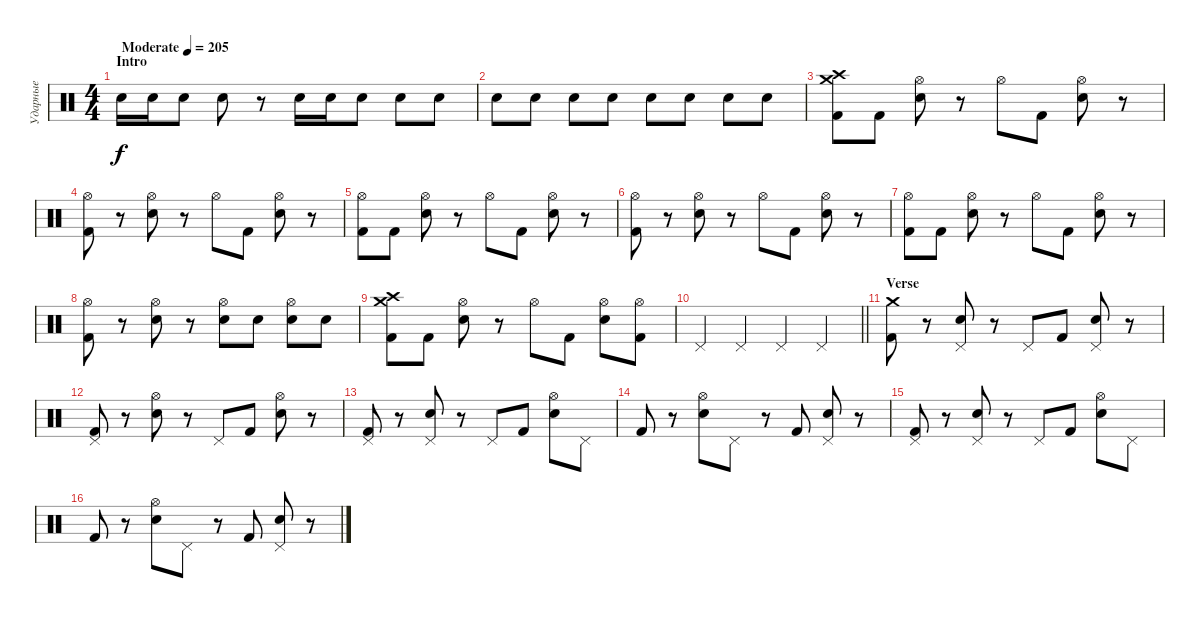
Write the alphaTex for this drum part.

\track ("Ударные" "Ударные") {instrument percussion}
\staff {score}
\articulation defaults
\ts (4 4)
\section ("" "Intro")
\tempo (205 "Moderate")
\clef neutral
\ks c "Electric Snare (hit)".16{dy f} "Electric Snare (hit)".16 "Electric Snare (hit)".8 "Electric Snare (hit)".8
r.8 "Electric Snare (hit)".16 "Electric Snare (hit)".16 "Electric Snare (hit)".8 "Electric Snare (hit)".8 "Electric Snare (hit)".8 |
"Electric Snare (hit)".8 "Electric Snare (hit)".8 "Electric Snare (hit)".8 "Electric Snare (hit)".8 "Electric Snare (hit)".8 "Electric Snare (hit)".8 "Electric Snare (hit)".8 "Electric Snare (hit)".8 |
("Crash medium (hit)" "Crash high (hit)" "Kick (hit) 2").8 "Kick (hit) 2".8 ("Hi-Hat (open)" "Electric Snare (hit)").8 r.8 "Hi-Hat (open)".8 "Kick (hit) 2".8 ("Hi-Hat (open)" "Electric Snare (hit)").8 r.8 |
("Hi-Hat (open)" "Kick (hit) 2").8 r.8 ("Hi-Hat (open)" "Electric Snare (hit)").8 r.8 "Hi-Hat (open)".8 "Kick (hit) 2".8 ("Hi-Hat (open)" "Electric Snare (hit)").8 r.8 |
("Hi-Hat (open)" "Kick (hit) 2").8 "Kick (hit) 2".8 ("Hi-Hat (open)" "Electric Snare (hit)").8 r.8 "Hi-Hat (open)".8 "Kick (hit) 2".8 ("Hi-Hat (open)" "Electric Snare (hit)").8 r.8 |
("Hi-Hat (open)" "Kick (hit) 2").8 r.8 ("Hi-Hat (open)" "Electric Snare (hit)").8 r.8 "Hi-Hat (open)".8 "Kick (hit) 2".8 ("Hi-Hat (open)" "Electric Snare (hit)").8 r.8 |
("Hi-Hat (open)" "Kick (hit) 2").8 "Kick (hit) 2".8 ("Hi-Hat (open)" "Electric Snare (hit)").8 r.8 "Hi-Hat (open)".8 "Kick (hit) 2".8 ("Hi-Hat (open)" "Electric Snare (hit)").8 r.8 |
("Hi-Hat (open)" "Kick (hit) 2").8 r.8 ("Hi-Hat (open)" "Electric Snare (hit)").8 r.8 ("Hi-Hat (open)" "Electric Snare (hit)").8 "Electric Snare (hit)".8 ("Hi-Hat (open)" "Electric Snare (hit)").8 "Electric Snare (hit)".8 |
("Crash medium (hit)" "Crash high (hit)" "Kick (hit) 2").8 "Kick (hit) 2".8 ("Hi-Hat (open)" "Electric Snare (hit)").8 r.8 "Hi-Hat (open)".8 "Kick (hit) 2".8 ("Hi-Hat (open)" "Electric Snare (hit)").8 ("Hi-Hat (open)" "Kick (hit) 2").8 |
\barLineRight lightlight "Pedal Hi-Hat (hit)".4 "Pedal Hi-Hat (hit)".4 "Pedal Hi-Hat (hit)".4 "Pedal Hi-Hat (hit)".4
|
\section ("" "Verse")
("Crash medium (hit)" "Kick (hit) 2").8 r.8 ("Pedal Hi-Hat (hit)" "Electric Snare (hit)").8 r.8 "Pedal Hi-Hat (hit)".8 "Kick (hit) 2".8 ("Pedal Hi-Hat (hit)" "Electric Snare (hit)").8 r.8 |
("Pedal Hi-Hat (hit)" "Kick (hit) 2").8 r.8 ("Hi-Hat (open)" "Electric Snare (hit)").8 r.8 "Pedal Hi-Hat (hit)".8 "Kick (hit) 2".8 ("Hi-Hat (open)" "Electric Snare (hit)").8 r.8 |
("Pedal Hi-Hat (hit)" "Kick (hit) 2").8 r.8 ("Pedal Hi-Hat (hit)" "Electric Snare (hit)").8 r.8 "Pedal Hi-Hat (hit)".8 "Kick (hit) 2".8 ("Hi-Hat (open)" "Electric Snare (hit)").8 "Pedal Hi-Hat (hit)".8 |
"Kick (hit) 2".8 r.8 ("Hi-Hat (open)" "Electric Snare (hit)").8 "Pedal Hi-Hat (hit)".8 r.8 "Kick (hit) 2".8 ("Pedal Hi-Hat (hit)" "Electric Snare (hit)").8 r.8 |
("Pedal Hi-Hat (hit)" "Kick (hit) 2").8 r.8 ("Pedal Hi-Hat (hit)" "Electric Snare (hit)").8 r.8 "Pedal Hi-Hat (hit)".8 "Kick (hit) 2".8 ("Hi-Hat (open)" "Electric Snare (hit)").8 "Pedal Hi-Hat (hit)".8 |
"Kick (hit) 2".8 r.8 ("Hi-Hat (open)" "Electric Snare (hit)").8 "Pedal Hi-Hat (hit)".8 r.8 "Kick (hit) 2".8 ("Pedal Hi-Hat (hit)" "Electric Snare (hit)").8 r.8
